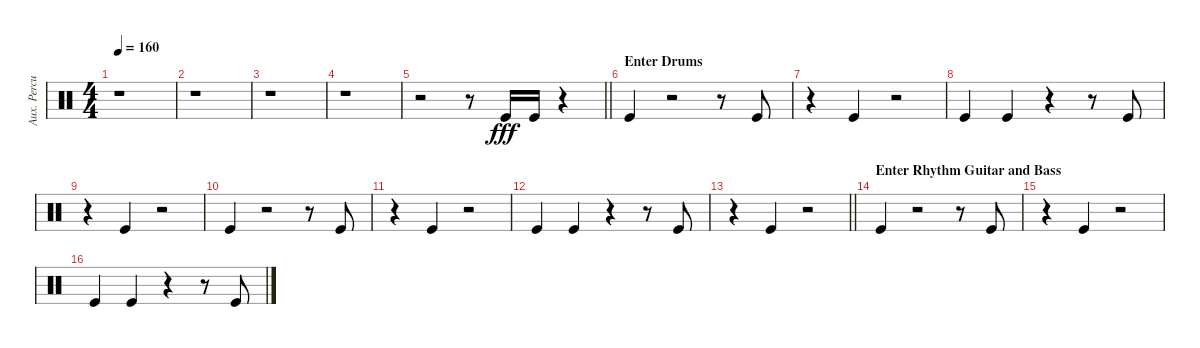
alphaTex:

\track ("Aux. Percussion" "Aux. Percu") {instrument percussion}
\staff {score}
\articulation defaults
\ts (4 4)
\tempo 160
\clef neutral
\ks c
r.1{dy fff} |
r.1 |
r.1 |
r.1 |
\barLineRight lightlight
r.2 r.8 "Kick (hit)".16 "Kick (hit)".16 r.4 |
\section ("" "Enter Drums")
"Kick (hit)".4 r.2 r.8 "Kick (hit)".8 |
r.4 "Kick (hit)".4 r.2 |
"Kick (hit)".4 "Kick (hit)".4 r.4 r.8 "Kick (hit)".8 |
r.4 "Kick (hit)".4 r.2 |
"Kick (hit)".4 r.2 r.8 "Kick (hit)".8 |
r.4 "Kick (hit)".4 r.2 |
"Kick (hit)".4 "Kick (hit)".4 r.4 r.8 "Kick (hit)".8 |
\barLineRight lightlight
r.4 "Kick (hit)".4 r.2 |
\section ("" "Enter Rhythm Guitar and Bass")
"Kick (hit)".4 r.2 r.8 "Kick (hit)".8 |
r.4 "Kick (hit)".4 r.2 |
"Kick (hit)".4 "Kick (hit)".4 r.4 r.8 "Kick (hit)".8
